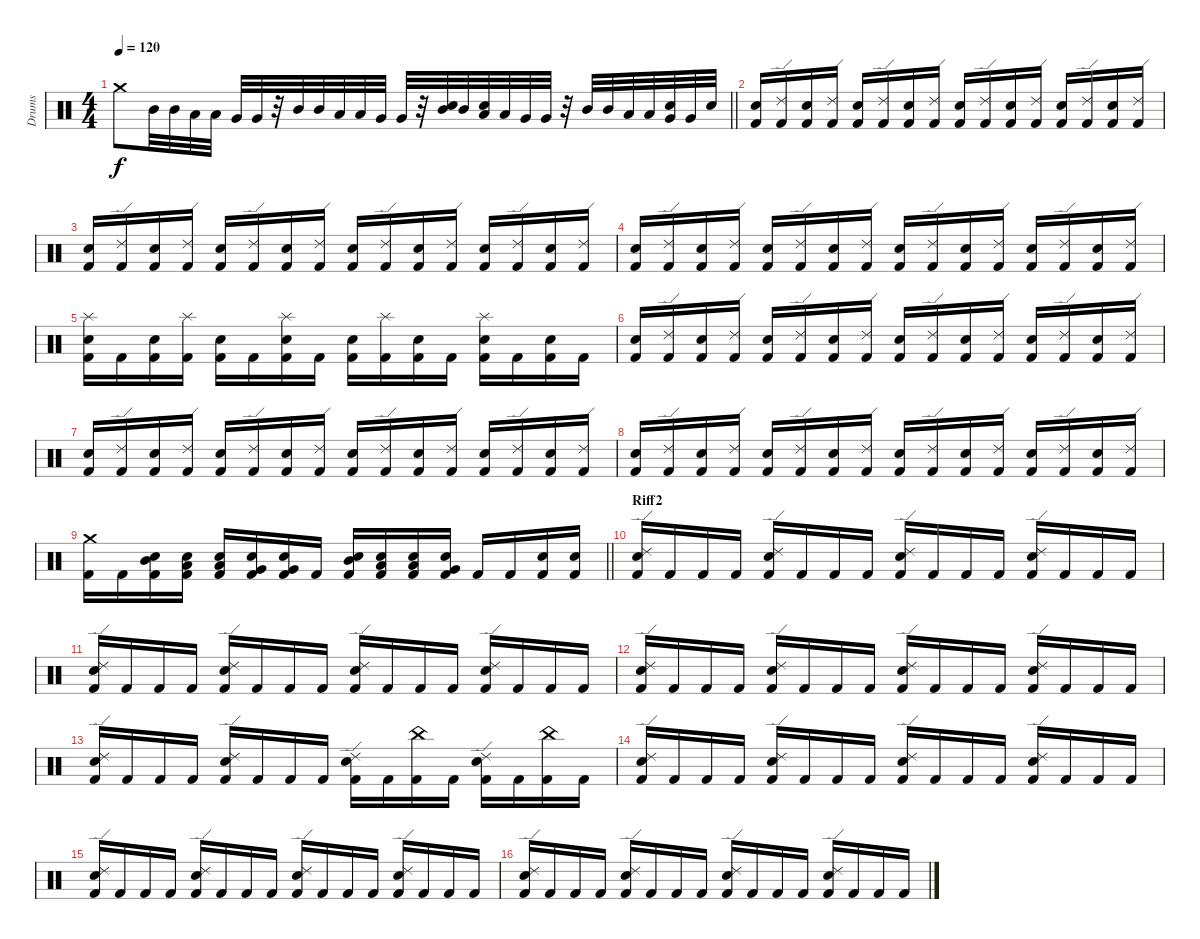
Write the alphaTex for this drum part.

\track ("Drums" "Drums") {instrument percussion}
\staff {score}
\articulation defaults
\ts (4 4)
\tempo 120
\clef neutral
\barLineRight lightlight
\ks c "Crash medium (hit)".8{dy f} "Mid Tom (hit)".32 "Mid Tom (hit)".32 "Low Tom (hit)".32 "Low Tom (hit)".32 "Very Low Tom (hit)".32 "Very Low Tom (hit)".32
r.32 "Mid Tom (hit)".32 "Mid Tom (hit)".32 "Low Tom (hit)".32 "Low Tom (hit)".32 "Very Low Tom (hit)".32 "Very Low Tom (hit)".32 r.32 ("Mid Tom (hit)" "Snare (hit) 2").32 "Mid Tom (hit)".32 ("Low Tom (hit)" "Snare (hit) 2").32 "Low Tom (hit)".32 "Very Low Tom (hit)".32 "Very Low Tom (hit)".32 r.32 "Mid Tom (hit)".32 "Mid Tom (hit)".32 "Low Tom (hit)".32 "Low Tom (hit)".32 ("Very Low Tom (hit)" "Snare (hit) 2").32 "Very Low Tom (hit)".32 "Snare (hit) 2".32 |
("Kick (hit) 2" "Snare (hit) 2").16 ("Kick (hit) 2" "Ride (edge) 2").16 ("Kick (hit) 2" "Snare (hit) 2").16 ("Kick (hit) 2" "Ride (edge) 2").16 ("Kick (hit) 2" "Snare (hit) 2").16 ("Kick (hit) 2" "Ride (edge) 2").16 ("Kick (hit) 2" "Snare (hit) 2").16 ("Kick (hit) 2" "Ride (edge) 2").16 ("Kick (hit) 2" "Snare (hit) 2").16 ("Kick (hit) 2" "Ride (edge) 2").16 ("Kick (hit) 2" "Snare (hit) 2").16 ("Kick (hit) 2" "Ride (edge) 2").16 ("Kick (hit) 2" "Snare (hit) 2").16 ("Kick (hit) 2" "Ride (edge) 2").16 ("Kick (hit) 2" "Snare (hit) 2").16 ("Kick (hit) 2" "Ride (edge) 2").16 |
("Kick (hit) 2" "Snare (hit) 2").16 ("Kick (hit) 2" "Ride (edge) 2").16 ("Kick (hit) 2" "Snare (hit) 2").16 ("Kick (hit) 2" "Ride (edge) 2").16 ("Kick (hit) 2" "Snare (hit) 2").16 ("Kick (hit) 2" "Ride (edge) 2").16 ("Kick (hit) 2" "Snare (hit) 2").16 ("Kick (hit) 2" "Ride (edge) 2").16 ("Kick (hit) 2" "Snare (hit) 2").16 ("Kick (hit) 2" "Ride (edge) 2").16 ("Kick (hit) 2" "Snare (hit) 2").16 ("Kick (hit) 2" "Ride (edge) 2").16 ("Kick (hit) 2" "Snare (hit) 2").16 ("Kick (hit) 2" "Ride (edge) 2").16 ("Kick (hit) 2" "Snare (hit) 2").16 ("Kick (hit) 2" "Ride (edge) 2").16 |
("Kick (hit) 2" "Snare (hit) 2").16 ("Kick (hit) 2" "Ride (edge) 2").16 ("Kick (hit) 2" "Snare (hit) 2").16 ("Kick (hit) 2" "Ride (edge) 2").16 ("Kick (hit) 2" "Snare (hit) 2").16 ("Kick (hit) 2" "Ride (edge) 2").16 ("Kick (hit) 2" "Snare (hit) 2").16 ("Kick (hit) 2" "Ride (edge) 2").16 ("Kick (hit) 2" "Snare (hit) 2").16 ("Kick (hit) 2" "Ride (edge) 2").16 ("Kick (hit) 2" "Snare (hit) 2").16 ("Kick (hit) 2" "Ride (edge) 2").16 ("Kick (hit) 2" "Snare (hit) 2").16 ("Kick (hit) 2" "Ride (edge) 2").16 ("Kick (hit) 2" "Snare (hit) 2").16 ("Kick (hit) 2" "Ride (edge) 2").16 |
("Kick (hit) 2" "Splash (hit)" "Snare (hit) 2").16 "Kick (hit) 2".16 ("Kick (hit) 2" "Snare (hit) 2").16 ("Kick (hit) 2" "Splash (hit)").16 ("Kick (hit) 2" "Snare (hit) 2").16 "Kick (hit) 2".16 ("Kick (hit) 2" "Splash (hit)" "Snare (hit) 2").16 "Kick (hit) 2".16 ("Kick (hit) 2" "Snare (hit) 2").16 ("Kick (hit) 2" "Splash (hit)").16 ("Kick (hit) 2" "Snare (hit) 2").16 "Kick (hit) 2".16 ("Kick (hit) 2" "Splash (hit)" "Snare (hit) 2").16 "Kick (hit) 2".16 ("Kick (hit) 2" "Snare (hit) 2").16 "Kick (hit) 2".16 |
("Kick (hit) 2" "Snare (hit) 2").16 ("Kick (hit) 2" "Ride (edge) 2").16 ("Kick (hit) 2" "Snare (hit) 2").16 ("Kick (hit) 2" "Ride (edge) 2").16 ("Kick (hit) 2" "Snare (hit) 2").16 ("Kick (hit) 2" "Ride (edge) 2").16 ("Kick (hit) 2" "Snare (hit) 2").16 ("Kick (hit) 2" "Ride (edge) 2").16 ("Kick (hit) 2" "Snare (hit) 2").16 ("Kick (hit) 2" "Ride (edge) 2").16 ("Kick (hit) 2" "Snare (hit) 2").16 ("Kick (hit) 2" "Ride (edge) 2").16 ("Kick (hit) 2" "Snare (hit) 2").16 ("Kick (hit) 2" "Ride (edge) 2").16 ("Kick (hit) 2" "Snare (hit) 2").16 ("Kick (hit) 2" "Ride (edge) 2").16 |
("Kick (hit) 2" "Snare (hit) 2").16 ("Kick (hit) 2" "Ride (edge) 2").16 ("Kick (hit) 2" "Snare (hit) 2").16 ("Kick (hit) 2" "Ride (edge) 2").16 ("Kick (hit) 2" "Snare (hit) 2").16 ("Kick (hit) 2" "Ride (edge) 2").16 ("Kick (hit) 2" "Snare (hit) 2").16 ("Kick (hit) 2" "Ride (edge) 2").16 ("Kick (hit) 2" "Snare (hit) 2").16 ("Kick (hit) 2" "Ride (edge) 2").16 ("Kick (hit) 2" "Snare (hit) 2").16 ("Kick (hit) 2" "Ride (edge) 2").16 ("Kick (hit) 2" "Snare (hit) 2").16 ("Kick (hit) 2" "Ride (edge) 2").16 ("Kick (hit) 2" "Snare (hit) 2").16 ("Kick (hit) 2" "Ride (edge) 2").16 |
("Kick (hit) 2" "Snare (hit) 2").16 ("Kick (hit) 2" "Ride (edge) 2").16 ("Kick (hit) 2" "Snare (hit) 2").16 ("Kick (hit) 2" "Ride (edge) 2").16 ("Kick (hit) 2" "Snare (hit) 2").16 ("Kick (hit) 2" "Ride (edge) 2").16 ("Kick (hit) 2" "Snare (hit) 2").16 ("Kick (hit) 2" "Ride (edge) 2").16 ("Kick (hit) 2" "Snare (hit) 2").16 ("Kick (hit) 2" "Ride (edge) 2").16 ("Kick (hit) 2" "Snare (hit) 2").16 ("Kick (hit) 2" "Ride (edge) 2").16 ("Kick (hit) 2" "Snare (hit) 2").16 ("Kick (hit) 2" "Ride (edge) 2").16 ("Kick (hit) 2" "Snare (hit) 2").16 ("Kick (hit) 2" "Ride (edge) 2").16 |
\barLineRight lightlight
("Kick (hit) 2" "Crash medium (hit)").16 "Kick (hit) 2".16 ("Kick (hit) 2" "Snare (hit) 2" "Mid Tom (hit)").16 ("Kick (hit) 2" "Snare (hit) 2" "Low Tom (hit)").16 ("Kick (hit) 2" "Snare (hit) 2" "Low Tom (hit)").16 ("Kick (hit) 2" "Snare (hit) 2" "Very Low Tom (hit)").16 ("Kick (hit) 2" "Snare (hit) 2" "Very Low Tom (hit)").16 "Kick (hit) 2".16 ("Kick (hit) 2" "Snare (hit) 2" "Mid Tom (hit)").16 ("Kick (hit) 2" "Snare (hit) 2" "Low Tom (hit)").16 ("Kick (hit) 2" "Snare (hit) 2" "Low Tom (hit)").16 ("Kick (hit) 2" "Snare (hit) 2" "Very Low Tom (hit)").16 "Kick (hit) 2".16 "Kick (hit) 2".16 ("Kick (hit) 2" "Snare (hit) 2").16 ("Kick (hit) 2" "Snare (hit) 2").16 |
\section ("" "Riff2")
("Kick (hit) 2" "Snare (hit) 2" "Ride (edge) 2").16 "Kick (hit) 2".16 "Kick (hit) 2".16 "Kick (hit) 2".16 ("Kick (hit) 2" "Snare (hit) 2" "Ride (edge) 2").16 "Kick (hit) 2".16 "Kick (hit) 2".16 "Kick (hit) 2".16 ("Kick (hit) 2" "Snare (hit) 2" "Ride (edge) 2").16 "Kick (hit) 2".16 "Kick (hit) 2".16 "Kick (hit) 2".16 ("Kick (hit) 2" "Snare (hit) 2" "Ride (edge) 2").16 "Kick (hit) 2".16 "Kick (hit) 2".16 "Kick (hit) 2".16 |
("Kick (hit) 2" "Snare (hit) 2" "Ride (edge) 2").16 "Kick (hit) 2".16 "Kick (hit) 2".16 "Kick (hit) 2".16 ("Kick (hit) 2" "Snare (hit) 2" "Ride (edge) 2").16 "Kick (hit) 2".16 "Kick (hit) 2".16 "Kick (hit) 2".16 ("Kick (hit) 2" "Snare (hit) 2" "Ride (edge) 2").16 "Kick (hit) 2".16 "Kick (hit) 2".16 "Kick (hit) 2".16 ("Kick (hit) 2" "Snare (hit) 2" "Ride (edge) 2").16 "Kick (hit) 2".16 "Kick (hit) 2".16 "Kick (hit) 2".16 |
("Kick (hit) 2" "Snare (hit) 2" "Ride (edge) 2").16 "Kick (hit) 2".16 "Kick (hit) 2".16 "Kick (hit) 2".16 ("Kick (hit) 2" "Snare (hit) 2" "Ride (edge) 2").16 "Kick (hit) 2".16 "Kick (hit) 2".16 "Kick (hit) 2".16 ("Kick (hit) 2" "Snare (hit) 2" "Ride (edge) 2").16 "Kick (hit) 2".16 "Kick (hit) 2".16 "Kick (hit) 2".16 ("Kick (hit) 2" "Snare (hit) 2" "Ride (edge) 2").16 "Kick (hit) 2".16 "Kick (hit) 2".16 "Kick (hit) 2".16 |
("Kick (hit) 2" "Snare (hit) 2" "Ride (edge) 2").16 "Kick (hit) 2".16 "Kick (hit) 2".16 "Kick (hit) 2".16 ("Kick (hit) 2" "Snare (hit) 2" "Ride (edge) 2").16 "Kick (hit) 2".16 "Kick (hit) 2".16 "Kick (hit) 2".16 ("Kick (hit) 2" "Snare (hit) 2" "Ride (edge) 2").16 "Kick (hit) 2".16 ("Kick (hit) 2" "China (hit)").16 "Kick (hit) 2".16 ("Kick (hit) 2" "Snare (hit) 2" "Ride (edge) 2").16 "Kick (hit) 2".16 ("Kick (hit) 2" "China (hit)").16 "Kick (hit) 2".16 |
("Kick (hit) 2" "Snare (hit) 2" "Ride (edge) 2").16 "Kick (hit) 2".16 "Kick (hit) 2".16 "Kick (hit) 2".16 ("Kick (hit) 2" "Snare (hit) 2" "Ride (edge) 2").16 "Kick (hit) 2".16 "Kick (hit) 2".16 "Kick (hit) 2".16 ("Kick (hit) 2" "Snare (hit) 2" "Ride (edge) 2").16 "Kick (hit) 2".16 "Kick (hit) 2".16 "Kick (hit) 2".16 ("Kick (hit) 2" "Snare (hit) 2" "Ride (edge) 2").16 "Kick (hit) 2".16 "Kick (hit) 2".16 "Kick (hit) 2".16 |
("Kick (hit) 2" "Snare (hit) 2" "Ride (edge) 2").16 "Kick (hit) 2".16 "Kick (hit) 2".16 "Kick (hit) 2".16 ("Kick (hit) 2" "Snare (hit) 2" "Ride (edge) 2").16 "Kick (hit) 2".16 "Kick (hit) 2".16 "Kick (hit) 2".16 ("Kick (hit) 2" "Snare (hit) 2" "Ride (edge) 2").16 "Kick (hit) 2".16 "Kick (hit) 2".16 "Kick (hit) 2".16 ("Kick (hit) 2" "Snare (hit) 2" "Ride (edge) 2").16 "Kick (hit) 2".16 "Kick (hit) 2".16 "Kick (hit) 2".16 |
("Kick (hit) 2" "Snare (hit) 2" "Ride (edge) 2").16 "Kick (hit) 2".16 "Kick (hit) 2".16 "Kick (hit) 2".16 ("Kick (hit) 2" "Snare (hit) 2" "Ride (edge) 2").16 "Kick (hit) 2".16 "Kick (hit) 2".16 "Kick (hit) 2".16 ("Kick (hit) 2" "Snare (hit) 2" "Ride (edge) 2").16 "Kick (hit) 2".16 "Kick (hit) 2".16 "Kick (hit) 2".16 ("Kick (hit) 2" "Snare (hit) 2" "Ride (edge) 2").16 "Kick (hit) 2".16 "Kick (hit) 2".16 "Kick (hit) 2".16
